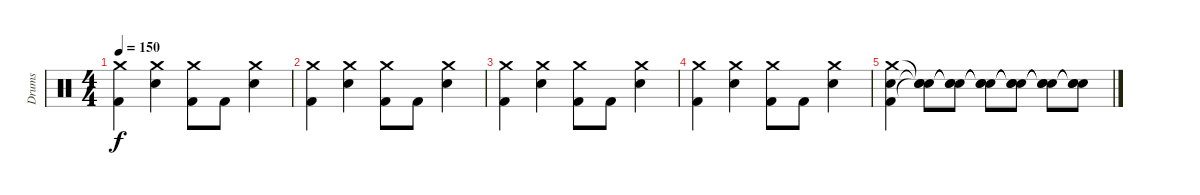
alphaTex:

\track ("Drums" "Drums") {instrument percussion}
\staff {score}
\articulation defaults
\ts (4 4)
\tempo 150
\clef neutral
\ks c
("Crash medium (hit)" "Kick (hit) 2").4{dy f} ("Crash medium (hit)" "Snare (hit) 2").4 ("Crash medium (hit)" "Kick (hit) 2").8 "Kick (hit) 2".8 ("Crash medium (hit)" "Snare (hit) 2").4 |
("Crash medium (hit)" "Kick (hit) 2").4 ("Crash medium (hit)" "Snare (hit) 2").4 ("Crash medium (hit)" "Kick (hit) 2").8 "Kick (hit) 2".8 ("Crash medium (hit)" "Snare (hit) 2").4 |
("Crash medium (hit)" "Kick (hit) 2").4 ("Crash medium (hit)" "Snare (hit) 2").4 ("Crash medium (hit)" "Kick (hit) 2").8 "Kick (hit) 2".8 ("Crash medium (hit)" "Snare (hit) 2").4 |
("Crash medium (hit)" "Kick (hit) 2").4 ("Crash medium (hit)" "Snare (hit) 2").4 ("Crash medium (hit)" "Kick (hit) 2").8 "Kick (hit) 2".8 ("Crash medium (hit)" "Snare (hit) 2").4 |
("Crash medium (hit)" "Snare (hit) 2" "Kick (hit) 2").4 ("Snare (hit)"{t} "Snare (hit)"{t} "Snare (hit)"{t}).8 ("Snare (hit)"{t} "Snare (hit)"{t} "Snare (hit)"{t}).8 ("Snare (hit)"{t} "Snare (hit)"{t} "Snare (hit)"{t}).8 ("Snare (hit)"{t} "Snare (hit)"{t} "Snare (hit)"{t}).8 ("Snare (hit)"{t} "Snare (hit)"{t} "Snare (hit)"{t}).8 ("Snare (hit)"{t} "Snare (hit)"{t} "Snare (hit)"{t}).8
